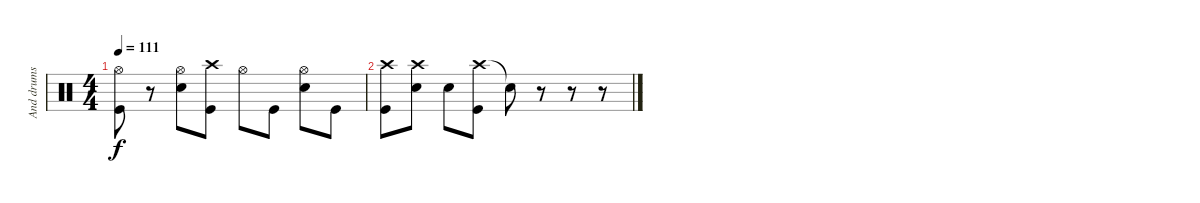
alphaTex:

\track ("And drums" "And drums") {instrument percussion}
\staff {score}
\articulation defaults
\ts (4 4)
\tempo 111
\clef neutral
\ks c
("Hi-Hat (open)" "Kick (hit)").8{dy f} r.8 ("Hi-Hat (open)" "Snare (hit) 2").8 ("Crash high (hit)" "Kick (hit)").8 "Hi-Hat (open)".8 "Kick (hit)".8 ("Hi-Hat (open)" "Snare (hit) 2").8 "Kick (hit)".8 |
("Crash high (hit)" "Kick (hit)").8 ("Crash high (hit)" "Snare (hit) 2").8 "Snare (hit) 2".8 ("Crash high (hit)" "Kick (hit)").8 "Snare (hit)"{t}.8 r.8 r.8 r.8
